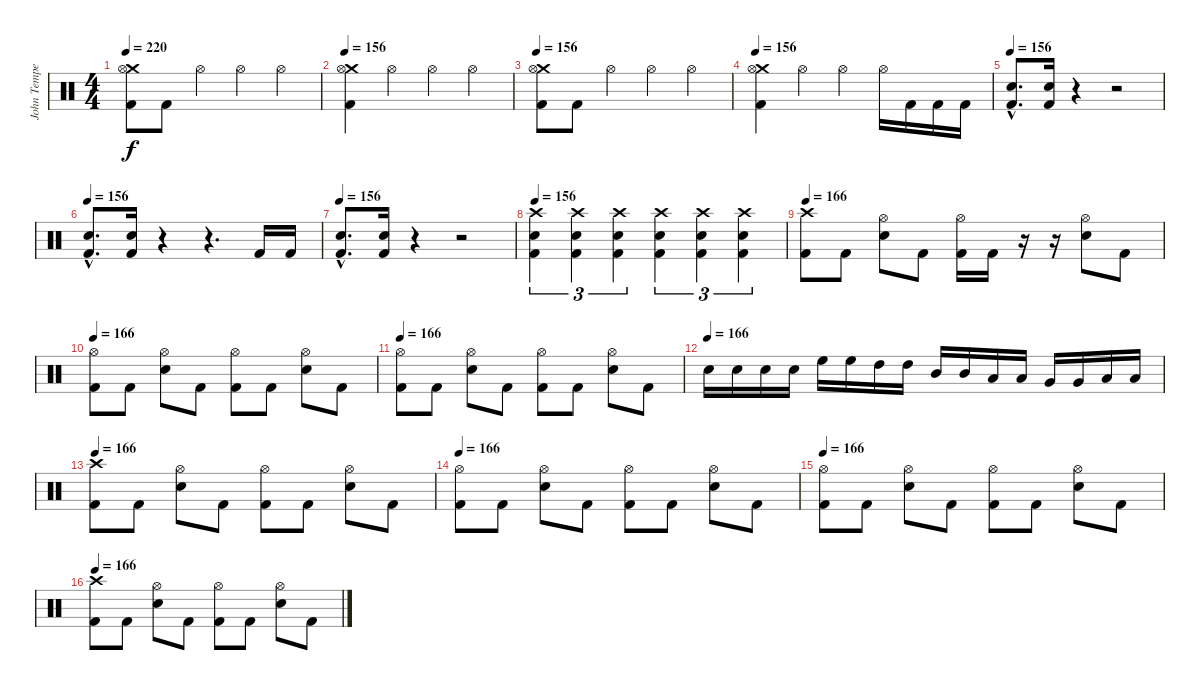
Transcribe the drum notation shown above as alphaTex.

\track ("John Tempesta" "John Tempe") {instrument percussion}
\staff {score}
\articulation defaults
\ts (4 4)
\tempo 220
\tempo 156
\tempo 220
\clef neutral
\ks c
("Crash medium (hit)" "Hi-Hat (open)" "Kick (hit) 2").8{dy f} "Kick (hit) 2".8 "Hi-Hat (open)".4 "Hi-Hat (open)".4 "Hi-Hat (open)".4 |
\tempo 156
("Crash medium (hit)" "Hi-Hat (open)" "Kick (hit) 2").4 "Hi-Hat (open)".4 "Hi-Hat (open)".4 "Hi-Hat (open)".4 |
\tempo 156
("Crash medium (hit)" "Hi-Hat (open)" "Kick (hit) 2").8 "Kick (hit) 2".8 "Hi-Hat (open)".4 "Hi-Hat (open)".4 "Hi-Hat (open)".4 |
\tempo 156
("Crash medium (hit)" "Hi-Hat (open)" "Kick (hit) 2").4 "Hi-Hat (open)".4 "Hi-Hat (open)".4 "Hi-Hat (open)".16 "Kick (hit) 2".16 "Kick (hit) 2".16 "Kick (hit) 2".16 |
\tempo 156
("Electric Snare (hit)"{hac} "Kick (hit) 2"{hac}).8{d} ("Electric Snare (hit)" "Kick (hit) 2").16 r.4 r.2 |
\tempo 156
("Electric Snare (hit)"{hac} "Kick (hit) 2"{hac}).8{d} ("Electric Snare (hit)" "Kick (hit) 2").16 r.4 r.4{d} "Kick (hit) 2".16 "Kick (hit) 2".16 |
\tempo 156
("Electric Snare (hit)"{hac} "Kick (hit) 2"{hac}).8{d} ("Electric Snare (hit)" "Kick (hit) 2").16 r.4 r.2 |
\tempo 156
("Crash high (hit)" "Electric Snare (hit)" "Kick (hit) 2").4{tu (3 2)} ("Crash high (hit)" "Electric Snare (hit)" "Kick (hit) 2").4{tu (3 2)} ("Crash high (hit)" "Electric Snare (hit)" "Kick (hit) 2").4{tu (3 2)} ("Crash high (hit)" "Electric Snare (hit)" "Kick (hit) 2").4{tu (3 2)} ("Crash high (hit)" "Electric Snare (hit)" "Kick (hit) 2").4{tu (3 2)} ("Crash high (hit)" "Electric Snare (hit)" "Kick (hit) 2").4{tu (3 2)} |
\tempo 166
("Crash high (hit)" "Kick (hit) 2").8 "Kick (hit) 2".8 ("Hi-Hat (open)" "Electric Snare (hit)").8 "Kick (hit) 2".8 ("Hi-Hat (open)" "Kick (hit) 2").16 "Kick (hit) 2".16 r.16 r.16 ("Hi-Hat (open)" "Electric Snare (hit)").8 "Kick (hit) 2".8 |
\tempo 166
("Hi-Hat (open)" "Kick (hit) 2").8 "Kick (hit) 2".8 ("Hi-Hat (open)" "Electric Snare (hit)").8 "Kick (hit) 2".8 ("Hi-Hat (open)" "Kick (hit) 2").8 "Kick (hit) 2".8 ("Hi-Hat (open)" "Electric Snare (hit)").8 "Kick (hit) 2".8 |
\tempo 166
("Hi-Hat (open)" "Kick (hit) 2").8 "Kick (hit) 2".8 ("Hi-Hat (open)" "Electric Snare (hit)").8 "Kick (hit) 2".8 ("Hi-Hat (open)" "Kick (hit) 2").8 "Kick (hit) 2".8 ("Hi-Hat (open)" "Electric Snare (hit)").8 "Kick (hit) 2".8 |
\tempo (166)
"Electric Snare (hit)".16 "Electric Snare (hit)".16 "Electric Snare (hit)".16 "Electric Snare (hit)".16 "High Floor Tom (hit)".16 "High Floor Tom (hit)".16 "High Tom (hit)".16 "High Tom (hit)".16 "Mid Tom (hit)".16 "Mid Tom (hit)".16 "Low Tom (hit)".16 "Low Tom (hit)".16 "Very Low Tom (hit)".16 "Very Low Tom (hit)".16 "Low Floor Tom (hit)".16 "Low Floor Tom (hit)".16 |
\tempo 166
("Crash high (hit)" "Kick (hit) 2").8 "Kick (hit) 2".8 ("Hi-Hat (open)" "Electric Snare (hit)").8 "Kick (hit) 2".8 ("Hi-Hat (open)" "Kick (hit) 2").8 "Kick (hit) 2".8 ("Hi-Hat (open)" "Electric Snare (hit)").8 "Kick (hit) 2".8 |
\tempo 166
("Hi-Hat (open)" "Kick (hit) 2").8 "Kick (hit) 2".8 ("Hi-Hat (open)" "Electric Snare (hit)").8 "Kick (hit) 2".8 ("Hi-Hat (open)" "Kick (hit) 2").8 "Kick (hit) 2".8 ("Hi-Hat (open)" "Electric Snare (hit)").8 "Kick (hit) 2".8 |
\tempo 166
("Hi-Hat (open)" "Kick (hit) 2").8 "Kick (hit) 2".8 ("Hi-Hat (open)" "Electric Snare (hit)").8 "Kick (hit) 2".8 ("Hi-Hat (open)" "Kick (hit) 2").8 "Kick (hit) 2".8 ("Hi-Hat (open)" "Electric Snare (hit)").8 "Kick (hit) 2".8 |
\tempo 166
("Crash high (hit)" "Kick (hit) 2").8 "Kick (hit) 2".8 ("Hi-Hat (open)" "Electric Snare (hit)").8 "Kick (hit) 2".8 ("Hi-Hat (open)" "Kick (hit) 2").8 "Kick (hit) 2".8 ("Hi-Hat (open)" "Electric Snare (hit)").8 "Kick (hit) 2".8
